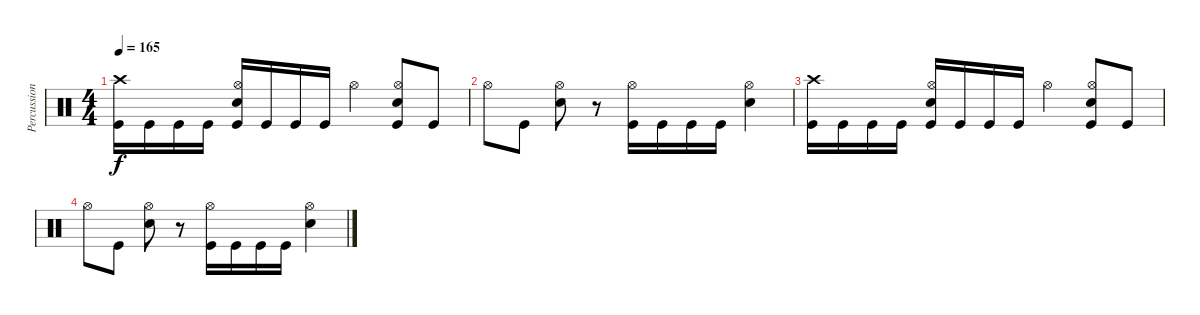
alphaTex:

\track ("Percussion" "Percussion") {instrument percussion}
\staff {score}
\articulation defaults
\ts (4 4)
\tempo 165
\clef neutral
\ks c
("Crash high (hit)" "Kick (hit)").16{dy f} "Kick (hit)".16 "Kick (hit)".16 "Kick (hit)".16 ("Hi-Hat (open)" "Electric Snare (hit)" "Kick (hit)").16 "Kick (hit)".16 "Kick (hit)".16 "Kick (hit)".16 "Hi-Hat (open)".4 ("Hi-Hat (open)" "Electric Snare (hit)" "Kick (hit)").8 "Kick (hit)".8 |
"Hi-Hat (open)".8 "Kick (hit)".8 ("Hi-Hat (open)" "Electric Snare (hit)").8 r.8 ("Hi-Hat (open)" "Kick (hit)").16 "Kick (hit)".16 "Kick (hit)".16 "Kick (hit)".16 ("Hi-Hat (open)" "Electric Snare (hit)").4 |
("Crash high (hit)" "Kick (hit)").16 "Kick (hit)".16 "Kick (hit)".16 "Kick (hit)".16 ("Hi-Hat (open)" "Electric Snare (hit)" "Kick (hit)").16 "Kick (hit)".16 "Kick (hit)".16 "Kick (hit)".16 "Hi-Hat (open)".4 ("Hi-Hat (open)" "Electric Snare (hit)" "Kick (hit)").8 "Kick (hit)".8 |
"Hi-Hat (open)".8 "Kick (hit)".8 ("Hi-Hat (open)" "Electric Snare (hit)").8 r.8 ("Hi-Hat (open)" "Kick (hit)").16 "Kick (hit)".16 "Kick (hit)".16 "Kick (hit)".16 ("Hi-Hat (open)" "Electric Snare (hit)").4
